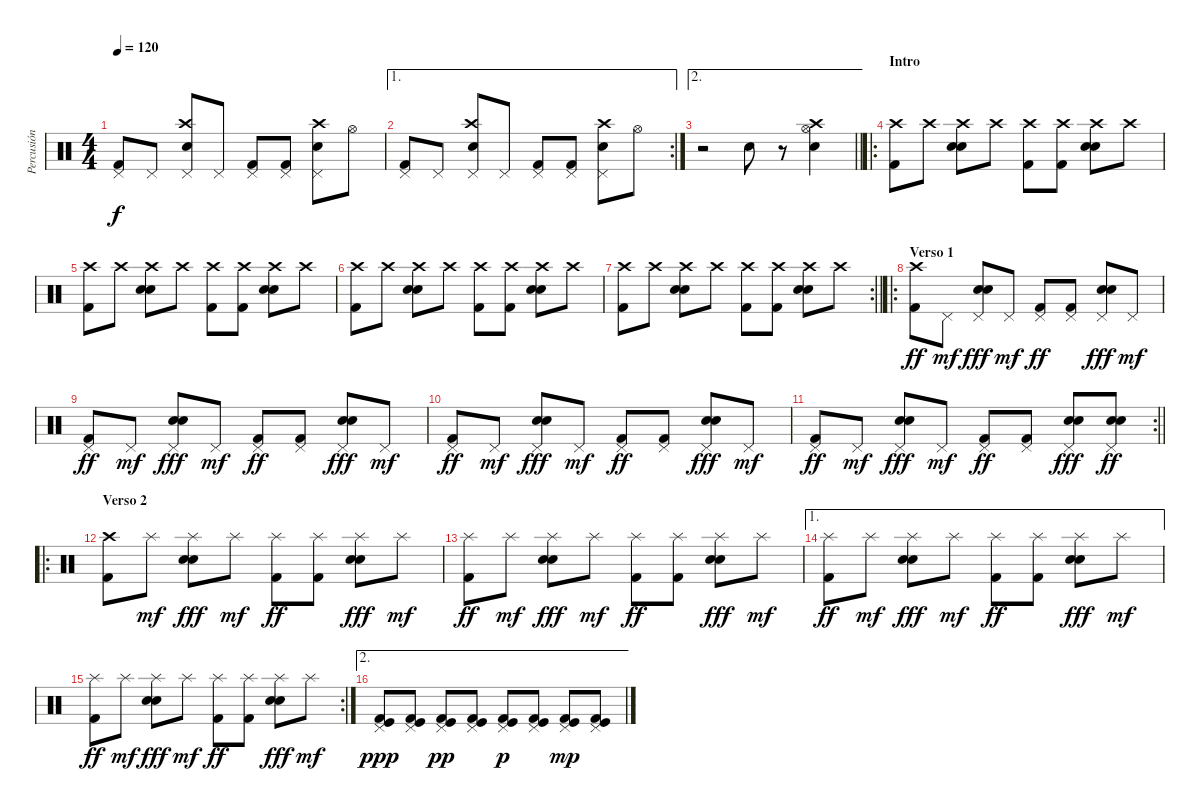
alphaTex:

\track ("Percusión" "Percusión") {instrument percussion}
\staff {score}
\articulation defaults
\ts (4 4)
\tempo 120
\clef neutral
\ks c
("Pedal Hi-Hat (hit)" "Kick (hit) 2").8{dy f} "Pedal Hi-Hat (hit)".8 ("Pedal Hi-Hat (hit)" "Crash high (hit)" "Snare (hit) 2").8 "Pedal Hi-Hat (hit)".8 ("Pedal Hi-Hat (hit)" "Kick (hit) 2").8 ("Pedal Hi-Hat (hit)" "Kick (hit) 2").8 ("Pedal Hi-Hat (hit)" "Crash high (hit)" "Snare (hit) 2").8 "Hi-Hat (open)".8 |
\ae 1
\rc 2
("Pedal Hi-Hat (hit)" "Kick (hit) 2").8 "Pedal Hi-Hat (hit)".8 ("Pedal Hi-Hat (hit)" "Crash high (hit)" "Snare (hit) 2").8 "Pedal Hi-Hat (hit)".8 ("Pedal Hi-Hat (hit)" "Kick (hit) 2").8 ("Pedal Hi-Hat (hit)" "Kick (hit) 2").8 ("Pedal Hi-Hat (hit)" "Crash high (hit)" "Snare (hit) 2").8 "Hi-Hat (open)".8 |
\ae 2
\barLineRight lightlight
r.2 "Snare (hit) 2".8 r.8 ("Crash high (hit)" "Hi-Hat (open)" "Electric Snare (hit)").4 |
\ro
\section ("" "Intro")
("Crash high (hit)" "Kick (hit) 2").8 "Crash high (hit)".8 ("Crash high (hit)" "Electric Snare (hit)" "Snare (hit) 2").8 "Crash high (hit)".8 ("Crash high (hit)" "Kick (hit) 2").8 ("Crash high (hit)" "Kick (hit) 2").8 ("Crash high (hit)" "Electric Snare (hit)" "Snare (hit) 2").8 "Crash high (hit)".8 |
("Crash high (hit)" "Kick (hit) 2").8 "Crash high (hit)".8 ("Crash high (hit)" "Electric Snare (hit)" "Snare (hit) 2").8 "Crash high (hit)".8 ("Crash high (hit)" "Kick (hit) 2").8 ("Crash high (hit)" "Kick (hit) 2").8 ("Crash high (hit)" "Electric Snare (hit)" "Snare (hit) 2").8 "Crash high (hit)".8 |
("Crash high (hit)" "Kick (hit) 2").8 "Crash high (hit)".8 ("Crash high (hit)" "Electric Snare (hit)" "Snare (hit) 2").8 "Crash high (hit)".8 ("Crash high (hit)" "Kick (hit) 2").8 ("Crash high (hit)" "Kick (hit) 2").8 ("Crash high (hit)" "Electric Snare (hit)" "Snare (hit) 2").8 "Crash high (hit)".8 |
\rc 2
\barLineRight lightlight
("Crash high (hit)" "Kick (hit) 2").8 "Crash high (hit)".8 ("Crash high (hit)" "Electric Snare (hit)" "Snare (hit) 2").8 "Crash high (hit)".8 ("Crash high (hit)" "Kick (hit) 2").8 ("Crash high (hit)" "Kick (hit) 2").8 ("Crash high (hit)" "Electric Snare (hit)" "Snare (hit) 2").8 "Crash high (hit)".8 |
\ro
\section ("" "Verso 1")
("Crash high (hit)" "Kick (hit) 2").8{dy ff} "Pedal Hi-Hat (hit)".8{dy mf} ("Pedal Hi-Hat (hit)" "Electric Snare (hit)" "Snare (hit) 2").8{dy fff} "Pedal Hi-Hat (hit)".8{dy mf} ("Pedal Hi-Hat (hit)" "Kick (hit) 2").8{dy ff} ("Pedal Hi-Hat (hit)" "Kick (hit) 2").8 ("Pedal Hi-Hat (hit)" "Electric Snare (hit)" "Snare (hit) 2").8{dy fff} "Pedal Hi-Hat (hit)".8{dy mf} |
("Pedal Hi-Hat (hit)" "Kick (hit) 2").8{dy ff} "Pedal Hi-Hat (hit)".8{dy mf} ("Pedal Hi-Hat (hit)" "Electric Snare (hit)" "Snare (hit) 2").8{dy fff} "Pedal Hi-Hat (hit)".8{dy mf} ("Pedal Hi-Hat (hit)" "Kick (hit) 2").8{dy ff} ("Pedal Hi-Hat (hit)" "Kick (hit) 2").8 ("Pedal Hi-Hat (hit)" "Electric Snare (hit)" "Snare (hit) 2").8{dy fff} "Pedal Hi-Hat (hit)".8{dy mf} |
("Pedal Hi-Hat (hit)" "Kick (hit) 2").8{dy ff} "Pedal Hi-Hat (hit)".8{dy mf} ("Pedal Hi-Hat (hit)" "Electric Snare (hit)" "Snare (hit) 2").8{dy fff} "Pedal Hi-Hat (hit)".8{dy mf} ("Pedal Hi-Hat (hit)" "Kick (hit) 2").8{dy ff} ("Pedal Hi-Hat (hit)" "Kick (hit) 2").8 ("Pedal Hi-Hat (hit)" "Electric Snare (hit)" "Snare (hit) 2").8{dy fff} "Pedal Hi-Hat (hit)".8{dy mf} |
\rc 2
\barLineRight lightlight
("Pedal Hi-Hat (hit)" "Kick (hit) 2").8{dy ff} "Pedal Hi-Hat (hit)".8{dy mf} ("Pedal Hi-Hat (hit)" "Electric Snare (hit)" "Snare (hit) 2").8{dy fff} "Pedal Hi-Hat (hit)".8{dy mf} ("Pedal Hi-Hat (hit)" "Kick (hit) 2").8{dy ff} ("Pedal Hi-Hat (hit)" "Kick (hit) 2").8 ("Pedal Hi-Hat (hit)" "Electric Snare (hit)" "Snare (hit) 2").8{dy fff} ("Pedal Hi-Hat (hit)" "Electric Snare (hit)" "Snare (hit) 2").8{dy ff} |
\ro
\section ("" "Verso 2")
("Crash high (hit)" "Kick (hit) 2").8 "Splash (hit)".8{dy mf} ("Splash (hit)" "Electric Snare (hit)" "Snare (hit) 2").8{dy fff} "Splash (hit)".8{dy mf} ("Splash (hit)" "Kick (hit) 2").8{dy ff} ("Splash (hit)" "Kick (hit) 2").8 ("Splash (hit)" "Electric Snare (hit)" "Snare (hit) 2").8{dy fff} "Splash (hit)".8{dy mf} |
("Splash (hit)" "Kick (hit) 2").8{dy ff} "Splash (hit)".8{dy mf} ("Splash (hit)" "Electric Snare (hit)" "Snare (hit) 2").8{dy fff} "Splash (hit)".8{dy mf} ("Splash (hit)" "Kick (hit) 2").8{dy ff} ("Splash (hit)" "Kick (hit) 2").8 ("Splash (hit)" "Electric Snare (hit)" "Snare (hit) 2").8{dy fff} "Splash (hit)".8{dy mf} |
\ae 1
("Splash (hit)" "Kick (hit) 2").8{dy ff} "Splash (hit)".8{dy mf} ("Splash (hit)" "Electric Snare (hit)" "Snare (hit) 2").8{dy fff} "Splash (hit)".8{dy mf} ("Splash (hit)" "Kick (hit) 2").8{dy ff} ("Splash (hit)" "Kick (hit) 2").8 ("Splash (hit)" "Electric Snare (hit)" "Snare (hit) 2").8{dy fff} "Splash (hit)".8{dy mf} |
\rc 2
("Splash (hit)" "Kick (hit) 2").8{dy ff} "Splash (hit)".8{dy mf} ("Splash (hit)" "Electric Snare (hit)" "Snare (hit) 2").8{dy fff} "Splash (hit)".8{dy mf} ("Splash (hit)" "Kick (hit) 2").8{dy ff} ("Splash (hit)" "Kick (hit) 2").8 ("Splash (hit)" "Electric Snare (hit)" "Snare (hit) 2").8{dy fff} "Splash (hit)".8{dy mf} |
\ae 2
("Kick (hit)" "Kick (hit) 2" "Pedal Hi-Hat (hit)").8{dy ppp} ("Kick (hit)" "Kick (hit) 2" "Pedal Hi-Hat (hit)").8 ("Kick (hit)" "Kick (hit) 2" "Pedal Hi-Hat (hit)").8{dy pp} ("Kick (hit)" "Kick (hit) 2" "Pedal Hi-Hat (hit)").8 ("Kick (hit)" "Kick (hit) 2" "Pedal Hi-Hat (hit)").8{dy p} ("Kick (hit)" "Kick (hit) 2" "Pedal Hi-Hat (hit)").8 ("Kick (hit)" "Kick (hit) 2" "Pedal Hi-Hat (hit)").8{dy mp} ("Kick (hit)" "Kick (hit) 2" "Pedal Hi-Hat (hit)").8
